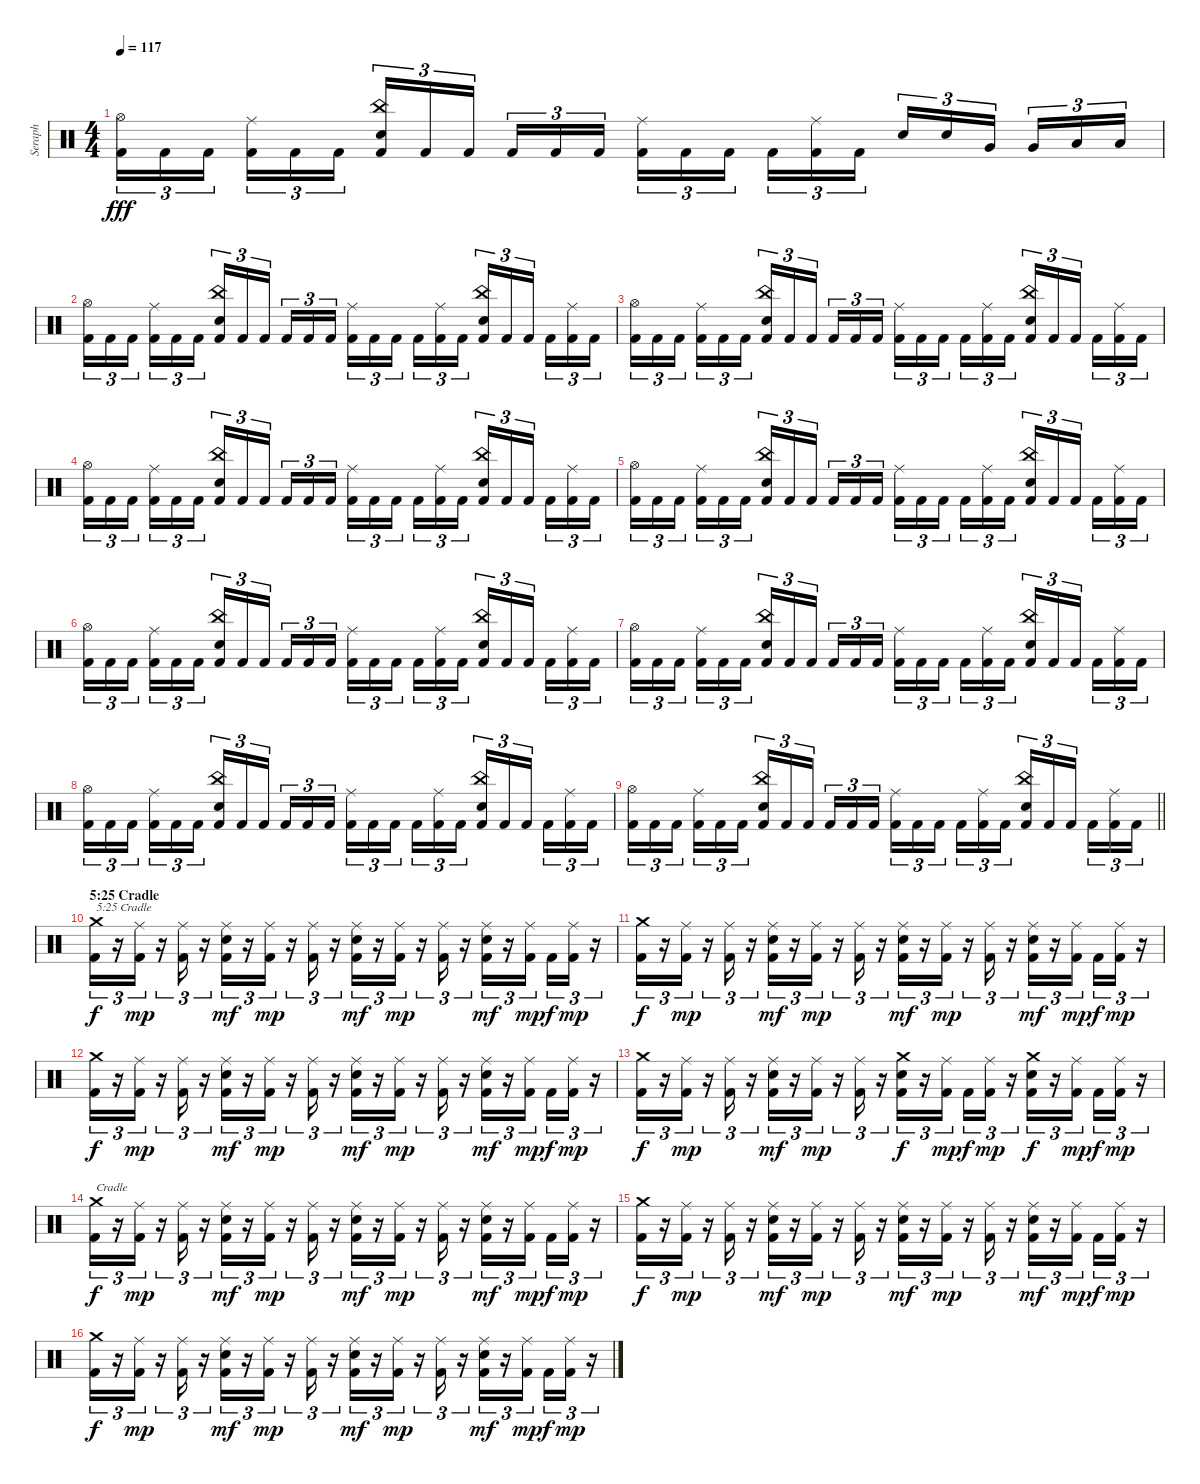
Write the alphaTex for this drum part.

\track ("Seraph" "Seraph") {instrument percussion}
\staff {score}
\articulation defaults
\ts (4 4)
\tempo 117
\clef neutral
\ks c
("Hi-Hat (open)" "Kick (hit) 2").16{tu (3 2) dy fff} "Kick (hit) 2".16{tu (3 2)} "Kick (hit) 2".16{tu (3 2) beam splitsecondary} ("Ride (middle)" "Kick (hit) 2").16{tu (3 2)} "Kick (hit) 2".16{tu (3 2)} "Kick (hit) 2".16{tu (3 2)} ("China (hit)" "Electric Snare (hit)" "Kick (hit) 2").16{tu (3 2)} "Kick (hit) 2".16{tu (3 2)} "Kick (hit) 2".16{tu (3 2) beam splitsecondary} "Kick (hit) 2".16{tu (3 2)} "Kick (hit) 2".16{tu (3 2)} "Kick (hit) 2".16{tu (3 2)} ("Ride (middle)" "Kick (hit) 2").16{tu (3 2)} "Kick (hit) 2".16{tu (3 2)} "Kick (hit) 2".16{tu (3 2) beam splitsecondary} "Kick (hit) 2".16{tu (3 2)} ("Ride (middle)" "Kick (hit) 2").16{tu (3 2)} "Kick (hit) 2".16{tu (3 2)} "Electric Snare (hit)".16{tu (3 2)} "Electric Snare (hit)".16{tu (3 2)} "Very Low Tom (hit)".16{tu (3 2) beam splitsecondary} "Very Low Tom (hit)".16{tu (3 2)} "Low Floor Tom (hit)".16{tu (3 2)} "Low Floor Tom (hit)".16{tu (3 2)} |
("Hi-Hat (open)" "Kick (hit) 2").16{tu (3 2)} "Kick (hit) 2".16{tu (3 2)} "Kick (hit) 2".16{tu (3 2) beam splitsecondary} ("Ride (middle)" "Kick (hit) 2").16{tu (3 2)} "Kick (hit) 2".16{tu (3 2)} "Kick (hit) 2".16{tu (3 2)} ("China (hit)" "Electric Snare (hit)" "Kick (hit) 2").16{tu (3 2)} "Kick (hit) 2".16{tu (3 2)} "Kick (hit) 2".16{tu (3 2) beam splitsecondary} "Kick (hit) 2".16{tu (3 2)} "Kick (hit) 2".16{tu (3 2)} "Kick (hit) 2".16{tu (3 2)} ("Ride (middle)" "Kick (hit) 2").16{tu (3 2)} "Kick (hit) 2".16{tu (3 2)} "Kick (hit) 2".16{tu (3 2) beam splitsecondary} "Kick (hit) 2".16{tu (3 2)} ("Ride (middle)" "Kick (hit) 2").16{tu (3 2)} "Kick (hit) 2".16{tu (3 2)} ("China (hit)" "Electric Snare (hit)" "Kick (hit) 2").16{tu (3 2)} "Kick (hit) 2".16{tu (3 2)} "Kick (hit) 2".16{tu (3 2) beam splitsecondary} "Kick (hit) 2".16{tu (3 2)} ("Ride (middle)" "Kick (hit) 2").16{tu (3 2)} "Kick (hit) 2".16{tu (3 2)} |
("Hi-Hat (open)" "Kick (hit) 2").16{tu (3 2)} "Kick (hit) 2".16{tu (3 2)} "Kick (hit) 2".16{tu (3 2) beam splitsecondary} ("Ride (middle)" "Kick (hit) 2").16{tu (3 2)} "Kick (hit) 2".16{tu (3 2)} "Kick (hit) 2".16{tu (3 2)} ("China (hit)" "Electric Snare (hit)" "Kick (hit) 2").16{tu (3 2)} "Kick (hit) 2".16{tu (3 2)} "Kick (hit) 2".16{tu (3 2) beam splitsecondary} "Kick (hit) 2".16{tu (3 2)} "Kick (hit) 2".16{tu (3 2)} "Kick (hit) 2".16{tu (3 2)} ("Ride (middle)" "Kick (hit) 2").16{tu (3 2)} "Kick (hit) 2".16{tu (3 2)} "Kick (hit) 2".16{tu (3 2) beam splitsecondary} "Kick (hit) 2".16{tu (3 2)} ("Ride (middle)" "Kick (hit) 2").16{tu (3 2)} "Kick (hit) 2".16{tu (3 2)} ("China (hit)" "Electric Snare (hit)" "Kick (hit) 2").16{tu (3 2)} "Kick (hit) 2".16{tu (3 2)} "Kick (hit) 2".16{tu (3 2) beam splitsecondary} "Kick (hit) 2".16{tu (3 2)} ("Ride (middle)" "Kick (hit) 2").16{tu (3 2)} "Kick (hit) 2".16{tu (3 2)} |
("Hi-Hat (open)" "Kick (hit) 2").16{tu (3 2)} "Kick (hit) 2".16{tu (3 2)} "Kick (hit) 2".16{tu (3 2) beam splitsecondary} ("Ride (middle)" "Kick (hit) 2").16{tu (3 2)} "Kick (hit) 2".16{tu (3 2)} "Kick (hit) 2".16{tu (3 2)} ("China (hit)" "Electric Snare (hit)" "Kick (hit) 2").16{tu (3 2)} "Kick (hit) 2".16{tu (3 2)} "Kick (hit) 2".16{tu (3 2) beam splitsecondary} "Kick (hit) 2".16{tu (3 2)} "Kick (hit) 2".16{tu (3 2)} "Kick (hit) 2".16{tu (3 2)} ("Ride (middle)" "Kick (hit) 2").16{tu (3 2)} "Kick (hit) 2".16{tu (3 2)} "Kick (hit) 2".16{tu (3 2) beam splitsecondary} "Kick (hit) 2".16{tu (3 2)} ("Ride (middle)" "Kick (hit) 2").16{tu (3 2)} "Kick (hit) 2".16{tu (3 2)} ("China (hit)" "Electric Snare (hit)" "Kick (hit) 2").16{tu (3 2)} "Kick (hit) 2".16{tu (3 2)} "Kick (hit) 2".16{tu (3 2) beam splitsecondary} "Kick (hit) 2".16{tu (3 2)} ("Ride (middle)" "Kick (hit) 2").16{tu (3 2)} "Kick (hit) 2".16{tu (3 2)} |
("Hi-Hat (open)" "Kick (hit) 2").16{tu (3 2)} "Kick (hit) 2".16{tu (3 2)} "Kick (hit) 2".16{tu (3 2) beam splitsecondary} ("Ride (middle)" "Kick (hit) 2").16{tu (3 2)} "Kick (hit) 2".16{tu (3 2)} "Kick (hit) 2".16{tu (3 2)} ("China (hit)" "Electric Snare (hit)" "Kick (hit) 2").16{tu (3 2)} "Kick (hit) 2".16{tu (3 2)} "Kick (hit) 2".16{tu (3 2) beam splitsecondary} "Kick (hit) 2".16{tu (3 2)} "Kick (hit) 2".16{tu (3 2)} "Kick (hit) 2".16{tu (3 2)} ("Ride (middle)" "Kick (hit) 2").16{tu (3 2)} "Kick (hit) 2".16{tu (3 2)} "Kick (hit) 2".16{tu (3 2) beam splitsecondary} "Kick (hit) 2".16{tu (3 2)} ("Ride (middle)" "Kick (hit) 2").16{tu (3 2)} "Kick (hit) 2".16{tu (3 2)} ("China (hit)" "Electric Snare (hit)" "Kick (hit) 2").16{tu (3 2)} "Kick (hit) 2".16{tu (3 2)} "Kick (hit) 2".16{tu (3 2) beam splitsecondary} "Kick (hit) 2".16{tu (3 2)} ("Ride (middle)" "Kick (hit) 2").16{tu (3 2)} "Kick (hit) 2".16{tu (3 2)} |
("Hi-Hat (open)" "Kick (hit) 2").16{tu (3 2)} "Kick (hit) 2".16{tu (3 2)} "Kick (hit) 2".16{tu (3 2) beam splitsecondary} ("Ride (middle)" "Kick (hit) 2").16{tu (3 2)} "Kick (hit) 2".16{tu (3 2)} "Kick (hit) 2".16{tu (3 2)} ("China (hit)" "Electric Snare (hit)" "Kick (hit) 2").16{tu (3 2)} "Kick (hit) 2".16{tu (3 2)} "Kick (hit) 2".16{tu (3 2) beam splitsecondary} "Kick (hit) 2".16{tu (3 2)} "Kick (hit) 2".16{tu (3 2)} "Kick (hit) 2".16{tu (3 2)} ("Ride (middle)" "Kick (hit) 2").16{tu (3 2)} "Kick (hit) 2".16{tu (3 2)} "Kick (hit) 2".16{tu (3 2) beam splitsecondary} "Kick (hit) 2".16{tu (3 2)} ("Ride (middle)" "Kick (hit) 2").16{tu (3 2)} "Kick (hit) 2".16{tu (3 2)} ("China (hit)" "Electric Snare (hit)" "Kick (hit) 2").16{tu (3 2)} "Kick (hit) 2".16{tu (3 2)} "Kick (hit) 2".16{tu (3 2) beam splitsecondary} "Kick (hit) 2".16{tu (3 2)} ("Ride (middle)" "Kick (hit) 2").16{tu (3 2)} "Kick (hit) 2".16{tu (3 2)} |
("Hi-Hat (open)" "Kick (hit) 2").16{tu (3 2)} "Kick (hit) 2".16{tu (3 2)} "Kick (hit) 2".16{tu (3 2) beam splitsecondary} ("Ride (middle)" "Kick (hit) 2").16{tu (3 2)} "Kick (hit) 2".16{tu (3 2)} "Kick (hit) 2".16{tu (3 2)} ("China (hit)" "Electric Snare (hit)" "Kick (hit) 2").16{tu (3 2)} "Kick (hit) 2".16{tu (3 2)} "Kick (hit) 2".16{tu (3 2) beam splitsecondary} "Kick (hit) 2".16{tu (3 2)} "Kick (hit) 2".16{tu (3 2)} "Kick (hit) 2".16{tu (3 2)} ("Ride (middle)" "Kick (hit) 2").16{tu (3 2)} "Kick (hit) 2".16{tu (3 2)} "Kick (hit) 2".16{tu (3 2) beam splitsecondary} "Kick (hit) 2".16{tu (3 2)} ("Ride (middle)" "Kick (hit) 2").16{tu (3 2)} "Kick (hit) 2".16{tu (3 2)} ("China (hit)" "Electric Snare (hit)" "Kick (hit) 2").16{tu (3 2)} "Kick (hit) 2".16{tu (3 2)} "Kick (hit) 2".16{tu (3 2) beam splitsecondary} "Kick (hit) 2".16{tu (3 2)} ("Ride (middle)" "Kick (hit) 2").16{tu (3 2)} "Kick (hit) 2".16{tu (3 2)} |
("Hi-Hat (open)" "Kick (hit) 2").16{tu (3 2)} "Kick (hit) 2".16{tu (3 2)} "Kick (hit) 2".16{tu (3 2) beam splitsecondary} ("Ride (middle)" "Kick (hit) 2").16{tu (3 2)} "Kick (hit) 2".16{tu (3 2)} "Kick (hit) 2".16{tu (3 2)} ("China (hit)" "Electric Snare (hit)" "Kick (hit) 2").16{tu (3 2)} "Kick (hit) 2".16{tu (3 2)} "Kick (hit) 2".16{tu (3 2) beam splitsecondary} "Kick (hit) 2".16{tu (3 2)} "Kick (hit) 2".16{tu (3 2)} "Kick (hit) 2".16{tu (3 2)} ("Ride (middle)" "Kick (hit) 2").16{tu (3 2)} "Kick (hit) 2".16{tu (3 2)} "Kick (hit) 2".16{tu (3 2) beam splitsecondary} "Kick (hit) 2".16{tu (3 2)} ("Ride (middle)" "Kick (hit) 2").16{tu (3 2)} "Kick (hit) 2".16{tu (3 2)} ("China (hit)" "Electric Snare (hit)" "Kick (hit) 2").16{tu (3 2)} "Kick (hit) 2".16{tu (3 2)} "Kick (hit) 2".16{tu (3 2) beam splitsecondary} "Kick (hit) 2".16{tu (3 2)} ("Ride (middle)" "Kick (hit) 2").16{tu (3 2)} "Kick (hit) 2".16{tu (3 2)} |
\barLineRight lightlight
("Hi-Hat (open)" "Kick (hit) 2").16{tu (3 2)} "Kick (hit) 2".16{tu (3 2)} "Kick (hit) 2".16{tu (3 2) beam splitsecondary} ("Ride (middle)" "Kick (hit) 2").16{tu (3 2)} "Kick (hit) 2".16{tu (3 2)} "Kick (hit) 2".16{tu (3 2)} ("China (hit)" "Electric Snare (hit)" "Kick (hit) 2").16{tu (3 2)} "Kick (hit) 2".16{tu (3 2)} "Kick (hit) 2".16{tu (3 2) beam splitsecondary} "Kick (hit) 2".16{tu (3 2)} "Kick (hit) 2".16{tu (3 2)} "Kick (hit) 2".16{tu (3 2)} ("Ride (middle)" "Kick (hit) 2").16{tu (3 2)} "Kick (hit) 2".16{tu (3 2)} "Kick (hit) 2".16{tu (3 2) beam splitsecondary} "Kick (hit) 2".16{tu (3 2)} ("Ride (middle)" "Kick (hit) 2").16{tu (3 2)} "Kick (hit) 2".16{tu (3 2)} ("China (hit)" "Electric Snare (hit)" "Kick (hit) 2").16{tu (3 2)} "Kick (hit) 2".16{tu (3 2)} "Kick (hit) 2".16{tu (3 2) beam splitsecondary} "Kick (hit) 2".16{tu (3 2)} ("Ride (middle)" "Kick (hit) 2").16{tu (3 2)} "Kick (hit) 2".16{tu (3 2)} |
\section ("" "5:25 Cradle")
("Kick (hit) 2" "Crash medium (hit)").16{tu (3 2) txt "5:25 Cradle" dy f} r.16{tu (3 2)} ("Kick (hit) 2" "Ride (middle)").16{tu (3 2) dy mp} r.16{tu (3 2)} ("Kick (hit) 2" "Ride (middle)").16{tu (3 2)} r.16{tu (3 2)} ("Kick (hit) 2" "Electric Snare (hit)" "Ride (middle)").16{tu (3 2) dy mf} r.16{tu (3 2)} ("Kick (hit) 2" "Ride (middle)").16{tu (3 2) dy mp} r.16{tu (3 2)} ("Kick (hit) 2" "Ride (middle)").16{tu (3 2)} r.16{tu (3 2)} ("Kick (hit) 2" "Electric Snare (hit)" "Ride (middle)").16{tu (3 2) dy mf} r.16{tu (3 2)} ("Kick (hit) 2" "Ride (middle)").16{tu (3 2) dy mp} r.16{tu (3 2)} ("Kick (hit) 2" "Ride (middle)").16{tu (3 2)} r.16{tu (3 2)} ("Kick (hit) 2" "Electric Snare (hit)" "Ride (middle)").16{tu (3 2) dy mf} r.16{tu (3 2)} ("Kick (hit) 2" "Ride (middle)").16{tu (3 2) dy mp beam splitsecondary} "Kick (hit) 2".16{tu (3 2) dy f} ("Kick (hit) 2" "Ride (middle)").16{tu (3 2) dy mp} r.16{tu (3 2)} |
("Kick (hit) 2" "Crash medium (hit)").16{tu (3 2) dy f} r.16{tu (3 2)} ("Kick (hit) 2" "Ride (middle)").16{tu (3 2) dy mp} r.16{tu (3 2)} ("Kick (hit) 2" "Ride (middle)").16{tu (3 2)} r.16{tu (3 2)} ("Kick (hit) 2" "Electric Snare (hit)" "Ride (middle)").16{tu (3 2) dy mf} r.16{tu (3 2)} ("Kick (hit) 2" "Ride (middle)").16{tu (3 2) dy mp} r.16{tu (3 2)} ("Kick (hit) 2" "Ride (middle)").16{tu (3 2)} r.16{tu (3 2)} ("Kick (hit) 2" "Electric Snare (hit)" "Ride (middle)").16{tu (3 2) dy mf} r.16{tu (3 2)} ("Kick (hit) 2" "Ride (middle)").16{tu (3 2) dy mp} r.16{tu (3 2)} ("Kick (hit) 2" "Ride (middle)").16{tu (3 2)} r.16{tu (3 2)} ("Kick (hit) 2" "Electric Snare (hit)" "Ride (middle)").16{tu (3 2) dy mf} r.16{tu (3 2)} ("Kick (hit) 2" "Ride (middle)").16{tu (3 2) dy mp beam splitsecondary} "Kick (hit) 2".16{tu (3 2) dy f} ("Kick (hit) 2" "Ride (middle)").16{tu (3 2) dy mp} r.16{tu (3 2)} |
("Kick (hit) 2" "Crash medium (hit)").16{tu (3 2) dy f} r.16{tu (3 2)} ("Kick (hit) 2" "Ride (middle)").16{tu (3 2) dy mp} r.16{tu (3 2)} ("Kick (hit) 2" "Ride (middle)").16{tu (3 2)} r.16{tu (3 2)} ("Kick (hit) 2" "Electric Snare (hit)" "Ride (middle)").16{tu (3 2) dy mf} r.16{tu (3 2)} ("Kick (hit) 2" "Ride (middle)").16{tu (3 2) dy mp} r.16{tu (3 2)} ("Kick (hit) 2" "Ride (middle)").16{tu (3 2)} r.16{tu (3 2)} ("Kick (hit) 2" "Electric Snare (hit)" "Ride (middle)").16{tu (3 2) dy mf} r.16{tu (3 2)} ("Kick (hit) 2" "Ride (middle)").16{tu (3 2) dy mp} r.16{tu (3 2)} ("Kick (hit) 2" "Ride (middle)").16{tu (3 2)} r.16{tu (3 2)} ("Kick (hit) 2" "Electric Snare (hit)" "Ride (middle)").16{tu (3 2) dy mf} r.16{tu (3 2)} ("Kick (hit) 2" "Ride (middle)").16{tu (3 2) dy mp beam splitsecondary} "Kick (hit) 2".16{tu (3 2) dy f} ("Kick (hit) 2" "Ride (middle)").16{tu (3 2) dy mp} r.16{tu (3 2)} |
("Kick (hit) 2" "Crash medium (hit)").16{tu (3 2) dy f} r.16{tu (3 2)} ("Kick (hit) 2" "Ride (middle)").16{tu (3 2) dy mp} r.16{tu (3 2)} ("Kick (hit) 2" "Ride (middle)").16{tu (3 2)} r.16{tu (3 2)} ("Kick (hit) 2" "Electric Snare (hit)" "Ride (middle)").16{tu (3 2) dy mf} r.16{tu (3 2)} ("Kick (hit) 2" "Ride (middle)").16{tu (3 2) dy mp} r.16{tu (3 2)} ("Kick (hit) 2" "Ride (middle)").16{tu (3 2)} r.16{tu (3 2)} ("Kick (hit) 2" "Electric Snare (hit)" "Crash medium (hit)").16{tu (3 2) dy f} r.16{tu (3 2)} ("Kick (hit) 2" "Ride (middle)").16{tu (3 2) dy mp beam splitsecondary} "Kick (hit) 2".16{tu (3 2) dy f} ("Kick (hit) 2" "Ride (middle)").16{tu (3 2) dy mp} r.16{tu (3 2)} ("Kick (hit) 2" "Electric Snare (hit)" "Crash medium (hit)").16{tu (3 2) dy f} r.16{tu (3 2)} ("Kick (hit) 2" "Ride (middle)").16{tu (3 2) dy mp beam splitsecondary} "Kick (hit) 2".16{tu (3 2) dy f} ("Kick (hit) 2" "Ride (middle)").16{tu (3 2) dy mp} r.16{tu (3 2)} |
("Kick (hit) 2" "Crash medium (hit)").16{tu (3 2) txt "Cradle" dy f} r.16{tu (3 2)} ("Kick (hit) 2" "Ride (middle)").16{tu (3 2) dy mp} r.16{tu (3 2)} ("Kick (hit) 2" "Ride (middle)").16{tu (3 2)} r.16{tu (3 2)} ("Kick (hit) 2" "Electric Snare (hit)" "Ride (middle)").16{tu (3 2) dy mf} r.16{tu (3 2)} ("Kick (hit) 2" "Ride (middle)").16{tu (3 2) dy mp} r.16{tu (3 2)} ("Kick (hit) 2" "Ride (middle)").16{tu (3 2)} r.16{tu (3 2)} ("Kick (hit) 2" "Electric Snare (hit)" "Ride (middle)").16{tu (3 2) dy mf} r.16{tu (3 2)} ("Kick (hit) 2" "Ride (middle)").16{tu (3 2) dy mp} r.16{tu (3 2)} ("Kick (hit) 2" "Ride (middle)").16{tu (3 2)} r.16{tu (3 2)} ("Kick (hit) 2" "Electric Snare (hit)" "Ride (middle)").16{tu (3 2) dy mf} r.16{tu (3 2)} ("Kick (hit) 2" "Ride (middle)").16{tu (3 2) dy mp beam splitsecondary} "Kick (hit) 2".16{tu (3 2) dy f} ("Kick (hit) 2" "Ride (middle)").16{tu (3 2) dy mp} r.16{tu (3 2)} |
("Kick (hit) 2" "Crash medium (hit)").16{tu (3 2) dy f} r.16{tu (3 2)} ("Kick (hit) 2" "Ride (middle)").16{tu (3 2) dy mp} r.16{tu (3 2)} ("Kick (hit) 2" "Ride (middle)").16{tu (3 2)} r.16{tu (3 2)} ("Kick (hit) 2" "Electric Snare (hit)" "Ride (middle)").16{tu (3 2) dy mf} r.16{tu (3 2)} ("Kick (hit) 2" "Ride (middle)").16{tu (3 2) dy mp} r.16{tu (3 2)} ("Kick (hit) 2" "Ride (middle)").16{tu (3 2)} r.16{tu (3 2)} ("Kick (hit) 2" "Electric Snare (hit)" "Ride (middle)").16{tu (3 2) dy mf} r.16{tu (3 2)} ("Kick (hit) 2" "Ride (middle)").16{tu (3 2) dy mp} r.16{tu (3 2)} ("Kick (hit) 2" "Ride (middle)").16{tu (3 2)} r.16{tu (3 2)} ("Kick (hit) 2" "Electric Snare (hit)" "Ride (middle)").16{tu (3 2) dy mf} r.16{tu (3 2)} ("Kick (hit) 2" "Ride (middle)").16{tu (3 2) dy mp beam splitsecondary} "Kick (hit) 2".16{tu (3 2) dy f} ("Kick (hit) 2" "Ride (middle)").16{tu (3 2) dy mp} r.16{tu (3 2)} |
("Kick (hit) 2" "Crash medium (hit)").16{tu (3 2) dy f} r.16{tu (3 2)} ("Kick (hit) 2" "Ride (middle)").16{tu (3 2) dy mp} r.16{tu (3 2)} ("Kick (hit) 2" "Ride (middle)").16{tu (3 2)} r.16{tu (3 2)} ("Kick (hit) 2" "Electric Snare (hit)" "Ride (middle)").16{tu (3 2) dy mf} r.16{tu (3 2)} ("Kick (hit) 2" "Ride (middle)").16{tu (3 2) dy mp} r.16{tu (3 2)} ("Kick (hit) 2" "Ride (middle)").16{tu (3 2)} r.16{tu (3 2)} ("Kick (hit) 2" "Electric Snare (hit)" "Ride (middle)").16{tu (3 2) dy mf} r.16{tu (3 2)} ("Kick (hit) 2" "Ride (middle)").16{tu (3 2) dy mp} r.16{tu (3 2)} ("Kick (hit) 2" "Ride (middle)").16{tu (3 2)} r.16{tu (3 2)} ("Kick (hit) 2" "Electric Snare (hit)" "Ride (middle)").16{tu (3 2) dy mf} r.16{tu (3 2)} ("Kick (hit) 2" "Ride (middle)").16{tu (3 2) dy mp beam splitsecondary} "Kick (hit) 2".16{tu (3 2) dy f} ("Kick (hit) 2" "Ride (middle)").16{tu (3 2) dy mp} r.16{tu (3 2)}
